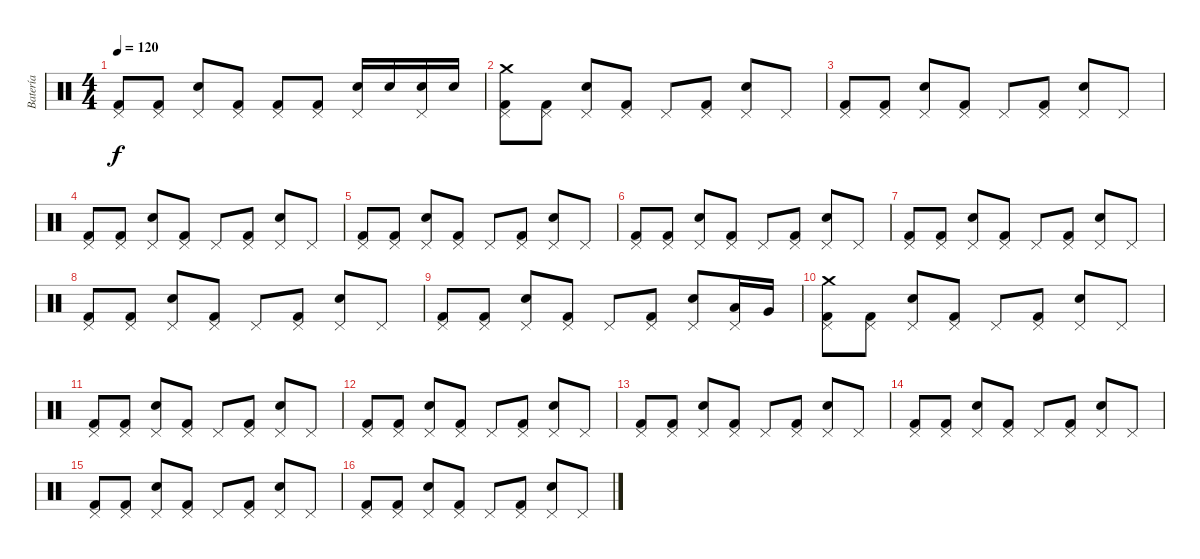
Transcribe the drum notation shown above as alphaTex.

\track ("Batería" "Batería") {instrument percussion}
\staff {score}
\articulation defaults
\ts (4 4)
\tempo 120
\clef neutral
\ks c
("Pedal Hi-Hat (hit)" "Kick (hit) 2").8{dy f} ("Pedal Hi-Hat (hit)" "Kick (hit) 2").8 ("Pedal Hi-Hat (hit)" "Snare (hit) 2").8 ("Kick (hit) 2" "Pedal Hi-Hat (hit)").8 ("Kick (hit) 2" "Pedal Hi-Hat (hit)").8 ("Pedal Hi-Hat (hit)" "Kick (hit) 2").8 ("Snare (hit) 2" "Pedal Hi-Hat (hit)").16 "Snare (hit) 2".16 ("Snare (hit) 2" "Pedal Hi-Hat (hit)").16 "Snare (hit) 2".16 |
("Pedal Hi-Hat (hit)" "Crash medium (hit)" "Kick (hit) 2").8 ("Pedal Hi-Hat (hit)" "Kick (hit) 2").8 ("Pedal Hi-Hat (hit)" "Snare (hit) 2").8 ("Pedal Hi-Hat (hit)" "Kick (hit) 2").8 "Pedal Hi-Hat (hit)".8 ("Pedal Hi-Hat (hit)" "Kick (hit) 2").8 ("Pedal Hi-Hat (hit)" "Snare (hit) 2").8 "Pedal Hi-Hat (hit)".8 |
("Pedal Hi-Hat (hit)" "Kick (hit) 2").8 ("Pedal Hi-Hat (hit)" "Kick (hit) 2").8 ("Pedal Hi-Hat (hit)" "Snare (hit) 2").8 ("Pedal Hi-Hat (hit)" "Kick (hit) 2").8 "Pedal Hi-Hat (hit)".8 ("Pedal Hi-Hat (hit)" "Kick (hit) 2").8 ("Pedal Hi-Hat (hit)" "Snare (hit) 2").8 "Pedal Hi-Hat (hit)".8 |
("Pedal Hi-Hat (hit)" "Kick (hit) 2").8 ("Pedal Hi-Hat (hit)" "Kick (hit) 2").8 ("Pedal Hi-Hat (hit)" "Snare (hit) 2").8 ("Pedal Hi-Hat (hit)" "Kick (hit) 2").8 "Pedal Hi-Hat (hit)".8 ("Pedal Hi-Hat (hit)" "Kick (hit) 2").8 ("Pedal Hi-Hat (hit)" "Snare (hit) 2").8 "Pedal Hi-Hat (hit)".8 |
("Pedal Hi-Hat (hit)" "Kick (hit) 2").8 ("Pedal Hi-Hat (hit)" "Kick (hit) 2").8 ("Pedal Hi-Hat (hit)" "Snare (hit) 2").8 ("Pedal Hi-Hat (hit)" "Kick (hit) 2").8 "Pedal Hi-Hat (hit)".8 ("Pedal Hi-Hat (hit)" "Kick (hit) 2").8 ("Pedal Hi-Hat (hit)" "Snare (hit) 2").8 "Pedal Hi-Hat (hit)".8 |
("Pedal Hi-Hat (hit)" "Kick (hit) 2").8 ("Pedal Hi-Hat (hit)" "Kick (hit) 2").8 ("Pedal Hi-Hat (hit)" "Snare (hit) 2").8 ("Pedal Hi-Hat (hit)" "Kick (hit) 2").8 "Pedal Hi-Hat (hit)".8 ("Pedal Hi-Hat (hit)" "Kick (hit) 2").8 ("Pedal Hi-Hat (hit)" "Snare (hit) 2").8 "Pedal Hi-Hat (hit)".8 |
("Pedal Hi-Hat (hit)" "Kick (hit) 2").8 ("Pedal Hi-Hat (hit)" "Kick (hit) 2").8 ("Pedal Hi-Hat (hit)" "Snare (hit) 2").8 ("Pedal Hi-Hat (hit)" "Kick (hit) 2").8 "Pedal Hi-Hat (hit)".8 ("Pedal Hi-Hat (hit)" "Kick (hit) 2").8 ("Pedal Hi-Hat (hit)" "Snare (hit) 2").8 "Pedal Hi-Hat (hit)".8 |
("Pedal Hi-Hat (hit)" "Kick (hit) 2").8 ("Pedal Hi-Hat (hit)" "Kick (hit) 2").8 ("Pedal Hi-Hat (hit)" "Snare (hit) 2").8 ("Pedal Hi-Hat (hit)" "Kick (hit) 2").8 "Pedal Hi-Hat (hit)".8 ("Pedal Hi-Hat (hit)" "Kick (hit) 2").8 ("Pedal Hi-Hat (hit)" "Snare (hit) 2").8 "Pedal Hi-Hat (hit)".8 |
("Pedal Hi-Hat (hit)" "Kick (hit) 2").8 ("Pedal Hi-Hat (hit)" "Kick (hit) 2").8 ("Pedal Hi-Hat (hit)" "Snare (hit) 2").8 ("Pedal Hi-Hat (hit)" "Kick (hit) 2").8 "Pedal Hi-Hat (hit)".8 ("Pedal Hi-Hat (hit)" "Kick (hit) 2").8 ("Snare (hit) 2" "Pedal Hi-Hat (hit)").8 ("Low Tom (hit)" "Pedal Hi-Hat (hit)").16 "Very Low Tom (hit)".16 |
("Pedal Hi-Hat (hit)" "Crash medium (hit)" "Kick (hit) 2").8 ("Pedal Hi-Hat (hit)" "Kick (hit) 2").8 ("Pedal Hi-Hat (hit)" "Snare (hit) 2").8 ("Pedal Hi-Hat (hit)" "Kick (hit) 2").8 "Pedal Hi-Hat (hit)".8 ("Pedal Hi-Hat (hit)" "Kick (hit) 2").8 ("Pedal Hi-Hat (hit)" "Snare (hit) 2").8 "Pedal Hi-Hat (hit)".8 |
("Pedal Hi-Hat (hit)" "Kick (hit) 2").8 ("Pedal Hi-Hat (hit)" "Kick (hit) 2").8 ("Pedal Hi-Hat (hit)" "Snare (hit) 2").8 ("Pedal Hi-Hat (hit)" "Kick (hit) 2").8 "Pedal Hi-Hat (hit)".8 ("Pedal Hi-Hat (hit)" "Kick (hit) 2").8 ("Pedal Hi-Hat (hit)" "Snare (hit) 2").8 "Pedal Hi-Hat (hit)".8 |
("Pedal Hi-Hat (hit)" "Kick (hit) 2").8 ("Pedal Hi-Hat (hit)" "Kick (hit) 2").8 ("Pedal Hi-Hat (hit)" "Snare (hit) 2").8 ("Pedal Hi-Hat (hit)" "Kick (hit) 2").8 "Pedal Hi-Hat (hit)".8 ("Pedal Hi-Hat (hit)" "Kick (hit) 2").8 ("Pedal Hi-Hat (hit)" "Snare (hit) 2").8 "Pedal Hi-Hat (hit)".8 |
("Pedal Hi-Hat (hit)" "Kick (hit) 2").8 ("Pedal Hi-Hat (hit)" "Kick (hit) 2").8 ("Pedal Hi-Hat (hit)" "Snare (hit) 2").8 ("Pedal Hi-Hat (hit)" "Kick (hit) 2").8 "Pedal Hi-Hat (hit)".8 ("Pedal Hi-Hat (hit)" "Kick (hit) 2").8 ("Pedal Hi-Hat (hit)" "Snare (hit) 2").8 "Pedal Hi-Hat (hit)".8 |
("Pedal Hi-Hat (hit)" "Kick (hit) 2").8 ("Pedal Hi-Hat (hit)" "Kick (hit) 2").8 ("Pedal Hi-Hat (hit)" "Snare (hit) 2").8 ("Pedal Hi-Hat (hit)" "Kick (hit) 2").8 "Pedal Hi-Hat (hit)".8 ("Pedal Hi-Hat (hit)" "Kick (hit) 2").8 ("Pedal Hi-Hat (hit)" "Snare (hit) 2").8 "Pedal Hi-Hat (hit)".8 |
("Pedal Hi-Hat (hit)" "Kick (hit) 2").8 ("Pedal Hi-Hat (hit)" "Kick (hit) 2").8 ("Pedal Hi-Hat (hit)" "Snare (hit) 2").8 ("Pedal Hi-Hat (hit)" "Kick (hit) 2").8 "Pedal Hi-Hat (hit)".8 ("Pedal Hi-Hat (hit)" "Kick (hit) 2").8 ("Pedal Hi-Hat (hit)" "Snare (hit) 2").8 "Pedal Hi-Hat (hit)".8 |
("Pedal Hi-Hat (hit)" "Kick (hit) 2").8 ("Pedal Hi-Hat (hit)" "Kick (hit) 2").8 ("Pedal Hi-Hat (hit)" "Snare (hit) 2").8 ("Pedal Hi-Hat (hit)" "Kick (hit) 2").8 "Pedal Hi-Hat (hit)".8 ("Pedal Hi-Hat (hit)" "Kick (hit) 2").8 ("Pedal Hi-Hat (hit)" "Snare (hit) 2").8 "Pedal Hi-Hat (hit)".8
